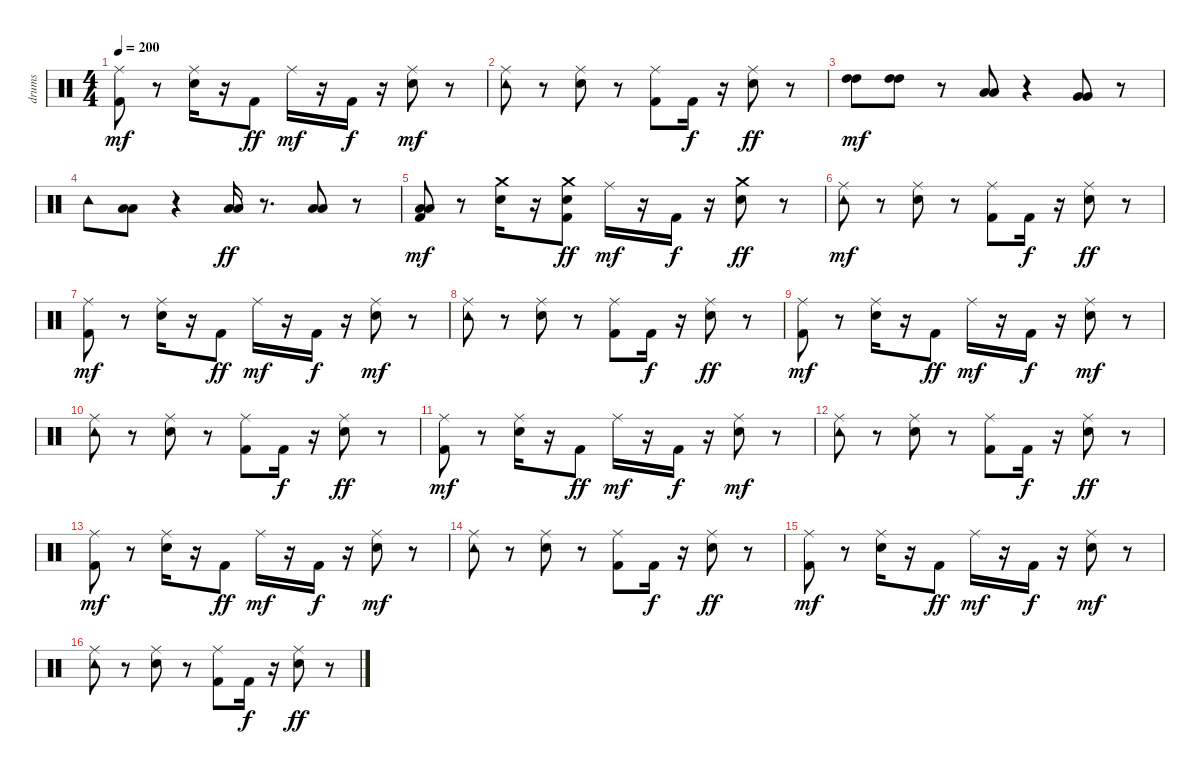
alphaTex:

\track ("drums" "drums") {instrument percussion}
\staff {score}
\articulation defaults
\ts (4 4)
\tempo 200
\clef neutral
\ks c
("Kick (hit) 2" "Ride (middle)").8{dy mf} r.8 ("Snare (hit) 2" "Ride (middle)").16 r.16 "Kick (hit) 2".8{dy ff} "Ride (middle)".16{dy mf} r.16 "Kick (hit) 2".16{dy f} r.16 ("Snare (hit) 2" "Ride (middle)").8{dy mf} r.8 |
("Tambourine (hit)" "Ride (middle)").8 r.8 ("Snare (hit) 2" "Ride (middle)").8 r.8 ("Kick (hit) 2" "Ride (middle)").8 "Kick (hit) 2".16{dy f} r.16 ("Snare (hit) 2" "Ride (middle)").8{dy ff} r.8 |
("High Tom (hit)" "High Tom (hit)").8{dy mf} ("High Tom (hit)" "High Tom (hit)").8 r.8 ("Low Tom (hit)" "Low Tom (hit)").8 r.4 ("Very Low Tom (hit)" "Very Low Tom (hit)").8 r.8 |
"Tambourine (hit)".8 ("Low Floor Tom (hit)" "Low Floor Tom (hit)").8 r.4 ("Low Tom (hit)" "Low Tom (hit)").16{dy ff} r.8{d} ("Low Tom (hit)" "Low Tom (hit)").8 r.8 |
("Kick (hit) 2" "Low Floor Tom (hit)" "Low Floor Tom (hit)").8{dy mf} r.8 ("Snare (hit) 2" "Crash medium (hit)").16 r.16 ("Snare (hit) 2" "Kick (hit) 2" "Crash medium (hit)").8{dy ff} "Ride (middle)".16{dy mf} r.16 "Kick (hit) 2".16{dy f} r.16 ("Crash medium (hit)" "Snare (hit) 2").8{dy ff} r.8 |
("Tambourine (hit)" "Ride (middle)").8{dy mf} r.8 ("Snare (hit) 2" "Ride (middle)").8 r.8 ("Kick (hit) 2" "Ride (middle)").8 "Kick (hit) 2".16{dy f} r.16 ("Snare (hit) 2" "Ride (middle)").8{dy ff} r.8 |
("Kick (hit) 2" "Ride (middle)").8{dy mf} r.8 ("Snare (hit) 2" "Ride (middle)").16 r.16 "Kick (hit) 2".8{dy ff} "Ride (middle)".16{dy mf} r.16 "Kick (hit) 2".16{dy f} r.16 ("Snare (hit) 2" "Ride (middle)").8{dy mf} r.8 |
("Tambourine (hit)" "Ride (middle)").8 r.8 ("Snare (hit) 2" "Ride (middle)").8 r.8 ("Kick (hit) 2" "Ride (middle)").8 "Kick (hit) 2".16{dy f} r.16 ("Snare (hit) 2" "Ride (middle)").8{dy ff} r.8 |
("Kick (hit) 2" "Ride (middle)").8{dy mf} r.8 ("Snare (hit) 2" "Ride (middle)").16 r.16 "Kick (hit) 2".8{dy ff} "Ride (middle)".16{dy mf} r.16 "Kick (hit) 2".16{dy f} r.16 ("Snare (hit) 2" "Ride (middle)").8{dy mf} r.8 |
("Tambourine (hit)" "Ride (middle)").8 r.8 ("Snare (hit) 2" "Ride (middle)").8 r.8 ("Kick (hit) 2" "Ride (middle)").8 "Kick (hit) 2".16{dy f} r.16 ("Snare (hit) 2" "Ride (middle)").8{dy ff} r.8 |
("Kick (hit) 2" "Ride (middle)").8{dy mf} r.8 ("Snare (hit) 2" "Ride (middle)").16 r.16 "Kick (hit) 2".8{dy ff} "Ride (middle)".16{dy mf} r.16 "Kick (hit) 2".16{dy f} r.16 ("Snare (hit) 2" "Ride (middle)").8{dy mf} r.8 |
("Tambourine (hit)" "Ride (middle)").8 r.8 ("Snare (hit) 2" "Ride (middle)").8 r.8 ("Kick (hit) 2" "Ride (middle)").8 "Kick (hit) 2".16{dy f} r.16 ("Snare (hit) 2" "Ride (middle)").8{dy ff} r.8 |
("Kick (hit) 2" "Ride (middle)").8{dy mf} r.8 ("Snare (hit) 2" "Ride (middle)").16 r.16 "Kick (hit) 2".8{dy ff} "Ride (middle)".16{dy mf} r.16 "Kick (hit) 2".16{dy f} r.16 ("Snare (hit) 2" "Ride (middle)").8{dy mf} r.8 |
("Tambourine (hit)" "Ride (middle)").8 r.8 ("Snare (hit) 2" "Ride (middle)").8 r.8 ("Kick (hit) 2" "Ride (middle)").8 "Kick (hit) 2".16{dy f} r.16 ("Snare (hit) 2" "Ride (middle)").8{dy ff} r.8 |
("Kick (hit) 2" "Ride (middle)").8{dy mf} r.8 ("Snare (hit) 2" "Ride (middle)").16 r.16 "Kick (hit) 2".8{dy ff} "Ride (middle)".16{dy mf} r.16 "Kick (hit) 2".16{dy f} r.16 ("Snare (hit) 2" "Ride (middle)").8{dy mf} r.8 |
("Tambourine (hit)" "Ride (middle)").8 r.8 ("Snare (hit) 2" "Ride (middle)").8 r.8 ("Kick (hit) 2" "Ride (middle)").8 "Kick (hit) 2".16{dy f} r.16 ("Snare (hit) 2" "Ride (middle)").8{dy ff} r.8
